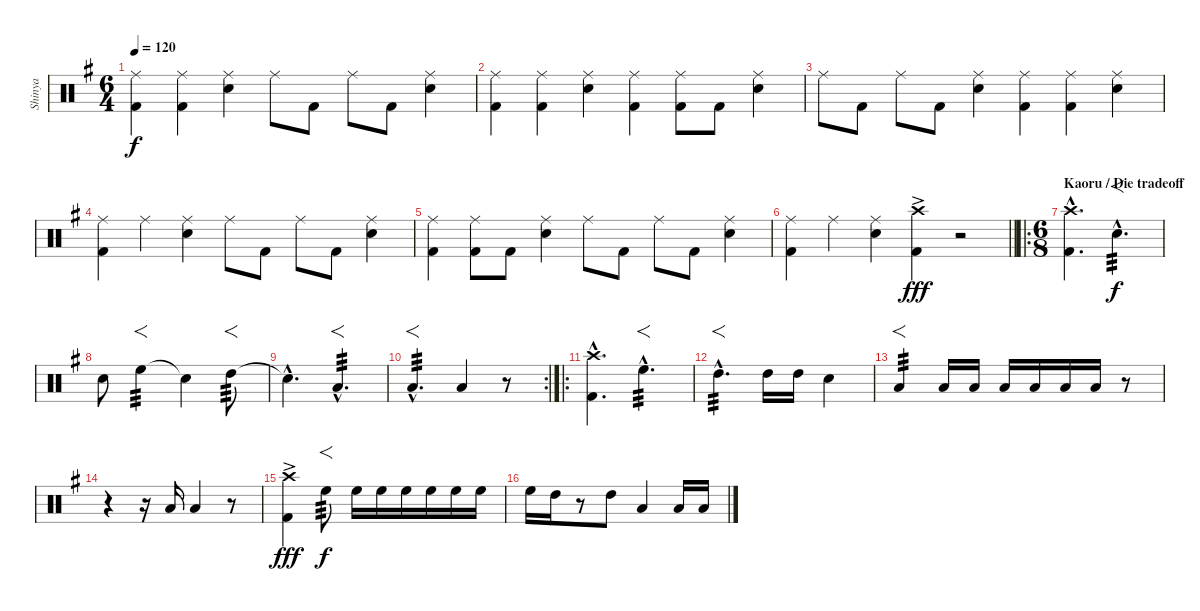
\track ("Shinya" "Shinya") {instrument percussion}
\staff {score}
\articulation defaults
\ts (6 4)
\tempo 120
\clef neutral
\ks g
("Ride (middle)" "Kick (hit) 2").4{dy f} ("Ride (middle)" "Kick (hit) 2").4 ("Ride (middle)" "Snare (hit) 2").4 "Ride (middle)".8 "Kick (hit) 2".8 "Ride (middle)".8 "Kick (hit) 2".8 ("Ride (middle)" "Snare (hit) 2").4 |
("Ride (middle)" "Kick (hit) 2").4 ("Ride (middle)" "Kick (hit) 2").4 ("Ride (middle)" "Snare (hit) 2").4 ("Ride (middle)" "Kick (hit) 2").4 ("Ride (middle)" "Kick (hit) 2").8 "Kick (hit) 2".8 ("Ride (middle)" "Snare (hit) 2").4 |
"Ride (middle)".8 "Kick (hit) 2".8 "Ride (middle)".8 "Kick (hit) 2".8 ("Ride (middle)" "Snare (hit) 2").4 ("Ride (middle)" "Kick (hit) 2").4 ("Ride (middle)" "Kick (hit) 2").4 ("Ride (middle)" "Snare (hit) 2").4 |
("Ride (middle)" "Kick (hit) 2").4 "Ride (middle)".4 ("Ride (middle)" "Snare (hit) 2").4 "Ride (middle)".8 "Kick (hit) 2".8 "Ride (middle)".8 "Kick (hit) 2".8 ("Ride (middle)" "Snare (hit) 2").4 |
("Ride (middle)" "Kick (hit) 2").4 ("Ride (middle)" "Kick (hit) 2").8 "Kick (hit) 2".8 ("Ride (middle)" "Snare (hit) 2").4 "Ride (middle)".8 "Kick (hit) 2".8 "Ride (middle)".8 "Kick (hit) 2".8 ("Ride (middle)" "Snare (hit) 2").4 |
\barLineRight lightlight
("Ride (middle)" "Kick (hit) 2").4 "Ride (middle)".4 ("Ride (middle)" "Snare (hit) 2").4 ("Crash high (hit)"{ac} "Kick (hit) 2").4{dy fff} r.2 |
\ro
\ts (6 8)
\section ("" "Kaoru / Die tradeoff")
("Crash high (hit)"{hac} "Kick (hit) 2"{hac}).4{d} "Snare (hit) 2"{hac}.4{f d tp 3 dy f} |
"Snare (hit) 2".8 "High Floor Tom (hit)".4{f tp 3} "Snare (hit)"{t}.4 "High Tom (hit)".8{f tp 3} |
"Snare (hit)"{hac t}.4{d} "Low Tom (hit)"{hac}.4{f d tp 3} |
\rc 2 "Low Floor Tom (hit)"{hac}.4{f d tp 3} "Low Floor Tom (hit)".4
r.8 |
\ro
("Crash high (hit)"{hac} "Kick (hit) 2"{hac}).4{d} "High Floor Tom (hit)"{hac}.4{f d tp 3} |
"High Tom (hit)"{hac}.4{f d tp 3} "High Tom (hit)".16 "High Tom (hit)".16 "Snare (hit) 2".4 |
"Low Floor Tom (hit)".4{f tp 3} "Low Floor Tom (hit)".16 "Low Floor Tom (hit)".16 "Low Floor Tom (hit)".16 "Low Floor Tom (hit)".16 "Low Floor Tom (hit)".16 "Low Floor Tom (hit)".16 r.8 |
r.4 r.16 "Low Floor Tom (hit)".16 "Low Floor Tom (hit)".4 r.8 |
("Crash high (hit)"{ac} "Kick (hit) 2").4{dy fff} "High Floor Tom (hit)".8{f tp 3 dy f} "High Floor Tom (hit)".16 "High Floor Tom (hit)".16 "High Floor Tom (hit)".16 "High Floor Tom (hit)".16 "High Floor Tom (hit)".16 "High Floor Tom (hit)".16 |
"High Floor Tom (hit)".16 "High Tom (hit)".16 r.8 "High Tom (hit)".8 "Low Tom (hit)".4 "Low Floor Tom (hit)".16 "Low Floor Tom (hit)".16
